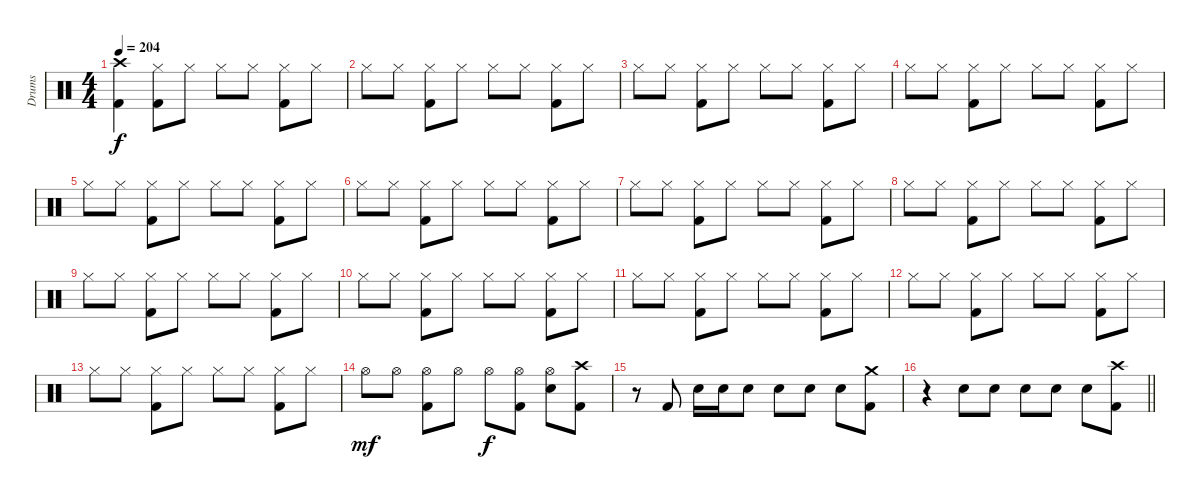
\track ("Drums" "Drums") {instrument percussion}
\staff {score}
\articulation defaults
\ts (4 4)
\tempo 204
\clef neutral
\ks c
("Crash high (hit)" "Kick (hit) 2").4{dy f} ("Hi-Hat (closed)" "Kick (hit) 2").8 "Hi-Hat (closed)".8 "Hi-Hat (closed)".8 "Hi-Hat (closed)".8 ("Hi-Hat (closed)" "Kick (hit) 2").8 "Hi-Hat (closed)".8 |
"Hi-Hat (closed)".8 "Hi-Hat (closed)".8 ("Hi-Hat (closed)" "Kick (hit) 2").8 "Hi-Hat (closed)".8 "Hi-Hat (closed)".8 "Hi-Hat (closed)".8 ("Hi-Hat (closed)" "Kick (hit) 2").8 "Hi-Hat (closed)".8 |
"Hi-Hat (closed)".8 "Hi-Hat (closed)".8 ("Hi-Hat (closed)" "Kick (hit) 2").8 "Hi-Hat (closed)".8 "Hi-Hat (closed)".8 "Hi-Hat (closed)".8 ("Hi-Hat (closed)" "Kick (hit) 2").8 "Hi-Hat (closed)".8 |
"Hi-Hat (closed)".8 "Hi-Hat (closed)".8 ("Hi-Hat (closed)" "Kick (hit) 2").8 "Hi-Hat (closed)".8 "Hi-Hat (closed)".8 "Hi-Hat (closed)".8 ("Hi-Hat (closed)" "Kick (hit) 2").8 "Hi-Hat (closed)".8 |
"Hi-Hat (closed)".8 "Hi-Hat (closed)".8 ("Hi-Hat (closed)" "Kick (hit) 2").8 "Hi-Hat (closed)".8 "Hi-Hat (closed)".8 "Hi-Hat (closed)".8 ("Hi-Hat (closed)" "Kick (hit) 2").8 "Hi-Hat (closed)".8 |
"Hi-Hat (closed)".8 "Hi-Hat (closed)".8 ("Hi-Hat (closed)" "Kick (hit) 2").8 "Hi-Hat (closed)".8 "Hi-Hat (closed)".8 "Hi-Hat (closed)".8 ("Hi-Hat (closed)" "Kick (hit) 2").8 "Hi-Hat (closed)".8 |
"Hi-Hat (closed)".8 "Hi-Hat (closed)".8 ("Hi-Hat (closed)" "Kick (hit) 2").8 "Hi-Hat (closed)".8 "Hi-Hat (closed)".8 "Hi-Hat (closed)".8 ("Hi-Hat (closed)" "Kick (hit) 2").8 "Hi-Hat (closed)".8 |
"Hi-Hat (closed)".8 "Hi-Hat (closed)".8 ("Hi-Hat (closed)" "Kick (hit) 2").8 "Hi-Hat (closed)".8 "Hi-Hat (closed)".8 "Hi-Hat (closed)".8 ("Hi-Hat (closed)" "Kick (hit) 2").8 "Hi-Hat (closed)".8 |
"Hi-Hat (closed)".8 "Hi-Hat (closed)".8 ("Hi-Hat (closed)" "Kick (hit) 2").8 "Hi-Hat (closed)".8 "Hi-Hat (closed)".8 "Hi-Hat (closed)".8 ("Hi-Hat (closed)" "Kick (hit) 2").8 "Hi-Hat (closed)".8 |
"Hi-Hat (closed)".8 "Hi-Hat (closed)".8 ("Hi-Hat (closed)" "Kick (hit) 2").8 "Hi-Hat (closed)".8 "Hi-Hat (closed)".8 "Hi-Hat (closed)".8 ("Hi-Hat (closed)" "Kick (hit) 2").8 "Hi-Hat (closed)".8 |
"Hi-Hat (closed)".8 "Hi-Hat (closed)".8 ("Hi-Hat (closed)" "Kick (hit) 2").8 "Hi-Hat (closed)".8 "Hi-Hat (closed)".8 "Hi-Hat (closed)".8 ("Hi-Hat (closed)" "Kick (hit) 2").8 "Hi-Hat (closed)".8 |
"Hi-Hat (closed)".8 "Hi-Hat (closed)".8 ("Hi-Hat (closed)" "Kick (hit) 2").8 "Hi-Hat (closed)".8 "Hi-Hat (closed)".8 "Hi-Hat (closed)".8 ("Hi-Hat (closed)" "Kick (hit) 2").8 "Hi-Hat (closed)".8 |
"Hi-Hat (closed)".8 "Hi-Hat (closed)".8 ("Hi-Hat (closed)" "Kick (hit) 2").8 "Hi-Hat (closed)".8 "Hi-Hat (closed)".8 "Hi-Hat (closed)".8 ("Hi-Hat (closed)" "Kick (hit) 2").8 "Hi-Hat (closed)".8 |
"Hi-Hat (open)".8{dy mf} "Hi-Hat (open)".8 ("Hi-Hat (open)" "Kick (hit) 2").8 "Hi-Hat (open)".8 "Hi-Hat (open)".8{dy f} ("Hi-Hat (open)" "Kick (hit) 2").8 ("Hi-Hat (open)" "Snare (hit) 2").8 ("Crash high (hit)" "Kick (hit) 2").8 |
r.8 "Kick (hit) 2".8 "Snare (hit) 2".16 "Snare (hit) 2".16 "Snare (hit) 2".8 "Snare (hit) 2".8 "Snare (hit) 2".8 "Snare (hit) 2".8 ("Crash medium (hit)" "Kick (hit) 2").8 |
\barLineRight lightlight
r.4 "Snare (hit) 2".8 "Snare (hit) 2".8 "Snare (hit) 2".8 "Snare (hit) 2".8 "Snare (hit) 2".8 ("Crash high (hit)" "Kick (hit) 2").8
